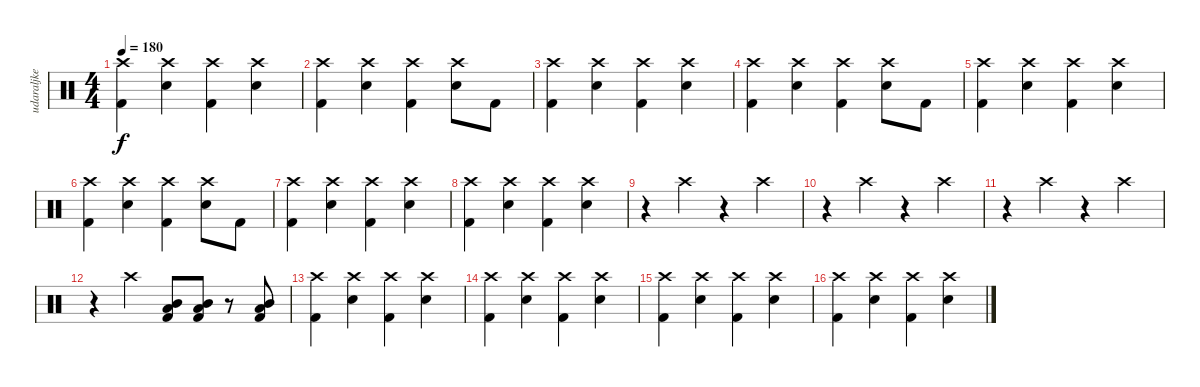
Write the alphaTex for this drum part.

\track ("udaraljke" "udaraljke") {instrument percussion}
\staff {score}
\articulation defaults
\ts (4 4)
\tempo 180
\clef neutral
\ks c
("Crash high (hit)" "Kick (hit) 2").4{dy f} ("Crash high (hit)" "Snare (hit) 2").4 ("Crash high (hit)" "Kick (hit) 2").4 ("Crash high (hit)" "Snare (hit) 2").4 |
("Crash high (hit)" "Kick (hit) 2").4 ("Crash high (hit)" "Snare (hit) 2").4 ("Crash high (hit)" "Kick (hit) 2").4 ("Crash high (hit)" "Snare (hit) 2").8 "Kick (hit) 2".8 |
("Crash high (hit)" "Kick (hit) 2").4 ("Crash high (hit)" "Snare (hit) 2").4 ("Crash high (hit)" "Kick (hit) 2").4 ("Crash high (hit)" "Snare (hit) 2").4 |
("Crash high (hit)" "Kick (hit) 2").4 ("Crash high (hit)" "Snare (hit) 2").4 ("Crash high (hit)" "Kick (hit) 2").4 ("Crash high (hit)" "Snare (hit) 2").8 "Kick (hit) 2".8 |
("Crash high (hit)" "Kick (hit) 2").4 ("Crash high (hit)" "Snare (hit) 2").4 ("Crash high (hit)" "Kick (hit) 2").4 ("Crash high (hit)" "Snare (hit) 2").4 |
("Crash high (hit)" "Kick (hit) 2").4 ("Crash high (hit)" "Snare (hit) 2").4 ("Crash high (hit)" "Kick (hit) 2").4 ("Crash high (hit)" "Snare (hit) 2").8 "Kick (hit) 2".8 |
("Crash high (hit)" "Kick (hit) 2").4 ("Crash high (hit)" "Snare (hit) 2").4 ("Crash high (hit)" "Kick (hit) 2").4 ("Crash high (hit)" "Snare (hit) 2").4 |
("Crash high (hit)" "Kick (hit) 2").4 ("Crash high (hit)" "Snare (hit) 2").4 ("Crash high (hit)" "Kick (hit) 2").4 ("Crash high (hit)" "Snare (hit) 2").4 |
r.4 "Crash high (hit)".4 r.4 "Crash high (hit)".4 |
r.4 "Crash high (hit)".4 r.4 "Crash high (hit)".4 |
r.4 "Crash high (hit)".4 r.4 "Crash high (hit)".4 |
r.4 "Crash high (hit)".4 ("Mid Tom (hit)" "Low Tom (hit)" "Kick (hit) 2").8 ("Mid Tom (hit)" "Low Tom (hit)" "Kick (hit) 2").8 r.8 ("Mid Tom (hit)" "Low Tom (hit)" "Kick (hit) 2").8 |
("Crash high (hit)" "Kick (hit) 2").4 ("Crash high (hit)" "Snare (hit) 2").4 ("Crash high (hit)" "Kick (hit) 2").4 ("Crash high (hit)" "Snare (hit) 2").4 |
("Crash high (hit)" "Kick (hit) 2").4 ("Crash high (hit)" "Snare (hit) 2").4 ("Crash high (hit)" "Kick (hit) 2").4 ("Crash high (hit)" "Snare (hit) 2").4 |
("Crash high (hit)" "Kick (hit) 2").4 ("Crash high (hit)" "Snare (hit) 2").4 ("Crash high (hit)" "Kick (hit) 2").4 ("Crash high (hit)" "Snare (hit) 2").4 |
("Crash high (hit)" "Kick (hit) 2").4 ("Crash high (hit)" "Snare (hit) 2").4 ("Crash high (hit)" "Kick (hit) 2").4 ("Crash high (hit)" "Snare (hit) 2").4
